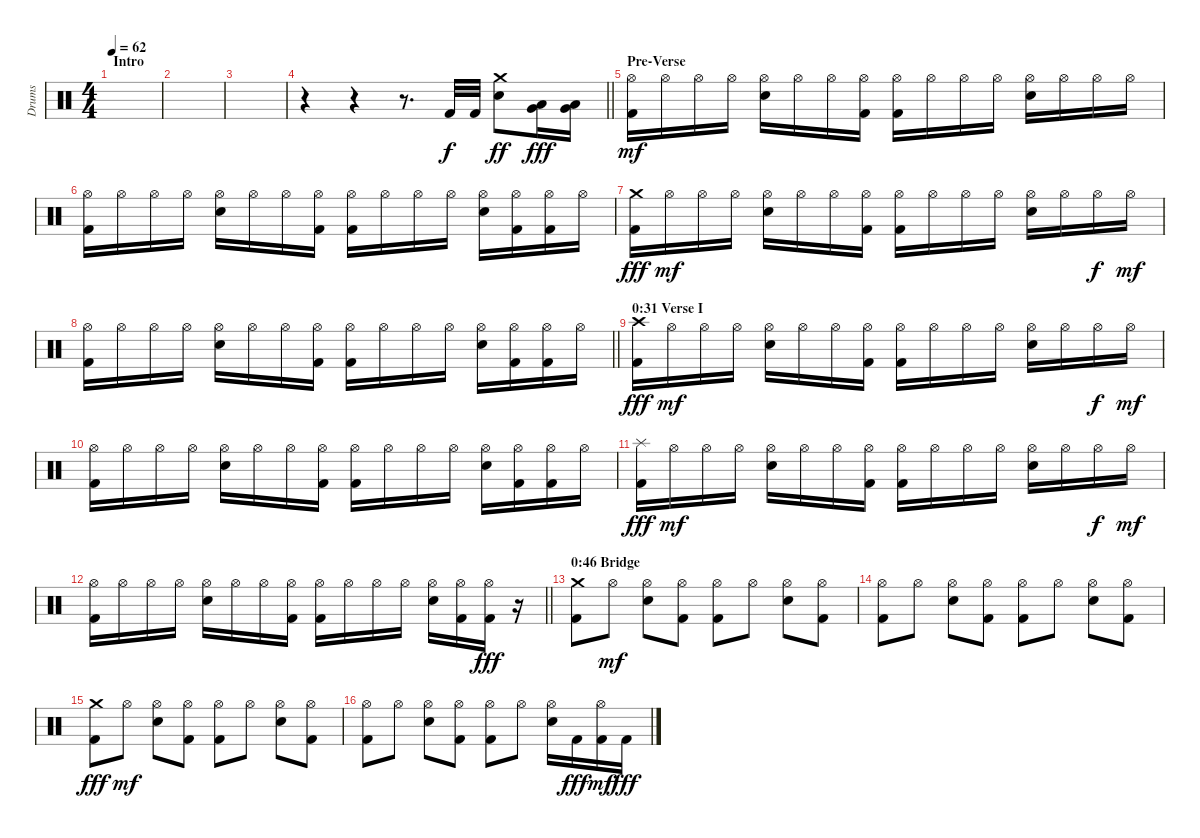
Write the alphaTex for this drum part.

\track ("Drums" "Drums") {instrument percussion}
\staff {score}
\articulation defaults
\ts (4 4)
\section ("" "Intro")
\tempo 62
\clef neutral
\ks c
|
|
|
\barLineRight lightlight
r.4 r.4 r.8{d} "Kick (hit) 2".32 "Kick (hit) 2".32 ("Electric Snare (hit)" "Crash medium (hit)").8{dy ff} ("Very Low Tom (hit)" "Low Tom (hit)").16{dy fff} ("Very Low Tom (hit)" "Low Tom (hit)").16 |
\section ("" "Pre-Verse")
("Kick (hit) 2" "Hi-Hat (open)").16{dy mf} "Hi-Hat (open)".16 "Hi-Hat (open)".16 "Hi-Hat (open)".16 ("Electric Snare (hit)" "Hi-Hat (open)").16 "Hi-Hat (open)".16 "Hi-Hat (open)".16 ("Kick (hit) 2" "Hi-Hat (open)").16 ("Kick (hit) 2" "Hi-Hat (open)").16 "Hi-Hat (open)".16 "Hi-Hat (open)".16 "Hi-Hat (open)".16 ("Electric Snare (hit)" "Hi-Hat (open)").16 "Hi-Hat (open)".16 "Hi-Hat (open)".16 "Hi-Hat (open)".16 |
("Kick (hit) 2" "Hi-Hat (open)").16 "Hi-Hat (open)".16 "Hi-Hat (open)".16 "Hi-Hat (open)".16 ("Electric Snare (hit)" "Hi-Hat (open)").16 "Hi-Hat (open)".16 "Hi-Hat (open)".16 ("Kick (hit) 2" "Hi-Hat (open)").16 ("Kick (hit) 2" "Hi-Hat (open)").16 "Hi-Hat (open)".16 "Hi-Hat (open)".16 "Hi-Hat (open)".16 ("Electric Snare (hit)" "Hi-Hat (open)").16 ("Kick (hit) 2" "Hi-Hat (open)").16 ("Kick (hit) 2" "Hi-Hat (open)").16 "Hi-Hat (open)".16 |
("Kick (hit) 2" "Crash medium (hit)").16{dy fff} "Hi-Hat (open)".16{dy mf} "Hi-Hat (open)".16 "Hi-Hat (open)".16 ("Electric Snare (hit)" "Hi-Hat (open)").16 "Hi-Hat (open)".16 "Hi-Hat (open)".16 ("Kick (hit) 2" "Hi-Hat (open)").16 ("Kick (hit) 2" "Hi-Hat (open)").16 "Hi-Hat (open)".16 "Hi-Hat (open)".16 "Hi-Hat (open)".16 ("Electric Snare (hit)" "Hi-Hat (open)").16 "Hi-Hat (open)".16 "Hi-Hat (open)".16{dy f} "Hi-Hat (open)".16{dy mf} |
\barLineRight lightlight
("Kick (hit) 2" "Hi-Hat (open)").16 "Hi-Hat (open)".16 "Hi-Hat (open)".16 "Hi-Hat (open)".16 ("Electric Snare (hit)" "Hi-Hat (open)").16 "Hi-Hat (open)".16 "Hi-Hat (open)".16 ("Kick (hit) 2" "Hi-Hat (open)").16 ("Kick (hit) 2" "Hi-Hat (open)").16 "Hi-Hat (open)".16 "Hi-Hat (open)".16 "Hi-Hat (open)".16 ("Electric Snare (hit)" "Hi-Hat (open)").16 ("Kick (hit) 2" "Hi-Hat (open)").16 ("Kick (hit) 2" "Hi-Hat (open)").16 "Hi-Hat (open)".16 |
\section ("" "0:31 Verse I ")
("Kick (hit) 2" "Crash high (hit)").16{dy fff} "Hi-Hat (open)".16{dy mf} "Hi-Hat (open)".16 "Hi-Hat (open)".16 ("Electric Snare (hit)" "Hi-Hat (open)").16 "Hi-Hat (open)".16 "Hi-Hat (open)".16 ("Kick (hit) 2" "Hi-Hat (open)").16 ("Kick (hit) 2" "Hi-Hat (open)").16 "Hi-Hat (open)".16 "Hi-Hat (open)".16 "Hi-Hat (open)".16 ("Electric Snare (hit)" "Hi-Hat (open)").16 "Hi-Hat (open)".16 "Hi-Hat (open)".16{dy f} "Hi-Hat (open)".16{dy mf} |
("Kick (hit) 2" "Hi-Hat (open)").16 "Hi-Hat (open)".16 "Hi-Hat (open)".16 "Hi-Hat (open)".16 ("Electric Snare (hit)" "Hi-Hat (open)").16 "Hi-Hat (open)".16 "Hi-Hat (open)".16 ("Kick (hit) 2" "Hi-Hat (open)").16 ("Kick (hit) 2" "Hi-Hat (open)").16 "Hi-Hat (open)".16 "Hi-Hat (open)".16 "Hi-Hat (open)".16 ("Electric Snare (hit)" "Hi-Hat (open)").16 ("Kick (hit) 2" "Hi-Hat (open)").16 ("Kick (hit) 2" "Hi-Hat (open)").16 "Hi-Hat (open)".16 |
("Kick (hit) 2" "Splash (hit)").16{dy fff} "Hi-Hat (open)".16{dy mf} "Hi-Hat (open)".16 "Hi-Hat (open)".16 ("Electric Snare (hit)" "Hi-Hat (open)").16 "Hi-Hat (open)".16 "Hi-Hat (open)".16 ("Kick (hit) 2" "Hi-Hat (open)").16 ("Kick (hit) 2" "Hi-Hat (open)").16 "Hi-Hat (open)".16 "Hi-Hat (open)".16 "Hi-Hat (open)".16 ("Electric Snare (hit)" "Hi-Hat (open)").16 "Hi-Hat (open)".16 "Hi-Hat (open)".16{dy f} "Hi-Hat (open)".16{dy mf} |
\barLineRight lightlight
("Kick (hit) 2" "Hi-Hat (open)").16 "Hi-Hat (open)".16 "Hi-Hat (open)".16 "Hi-Hat (open)".16 ("Electric Snare (hit)" "Hi-Hat (open)").16 "Hi-Hat (open)".16 "Hi-Hat (open)".16 ("Kick (hit) 2" "Hi-Hat (open)").16 ("Kick (hit) 2" "Hi-Hat (open)").16 "Hi-Hat (open)".16 "Hi-Hat (open)".16 "Hi-Hat (open)".16 ("Electric Snare (hit)" "Hi-Hat (open)").16 ("Kick (hit) 2" "Hi-Hat (open)").16 ("Kick (hit) 2" "Hi-Hat (open)").16{dy fff} r.16 |
\section ("" "0:46 Bridge")
("Kick (hit) 2" "Crash medium (hit)").8 "Hi-Hat (open)".8{dy mf} ("Electric Snare (hit)" "Hi-Hat (open)").8 ("Kick (hit) 2" "Hi-Hat (open)").8 ("Kick (hit) 2" "Hi-Hat (open)").8 "Hi-Hat (open)".8 ("Electric Snare (hit)" "Hi-Hat (open)").8 ("Kick (hit) 2" "Hi-Hat (open)").8 |
("Kick (hit) 2" "Hi-Hat (open)").8 "Hi-Hat (open)".8 ("Electric Snare (hit)" "Hi-Hat (open)").8 ("Kick (hit) 2" "Hi-Hat (open)").8 ("Kick (hit) 2" "Hi-Hat (open)").8 "Hi-Hat (open)".8 ("Electric Snare (hit)" "Hi-Hat (open)").8 ("Kick (hit) 2" "Hi-Hat (open)").8 |
("Kick (hit) 2" "Crash medium (hit)").8{dy fff} "Hi-Hat (open)".8{dy mf} ("Electric Snare (hit)" "Hi-Hat (open)").8 ("Kick (hit) 2" "Hi-Hat (open)").8 ("Kick (hit) 2" "Hi-Hat (open)").8 "Hi-Hat (open)".8 ("Electric Snare (hit)" "Hi-Hat (open)").8 ("Kick (hit) 2" "Hi-Hat (open)").8 |
("Kick (hit) 2" "Hi-Hat (open)").8 "Hi-Hat (open)".8 ("Electric Snare (hit)" "Hi-Hat (open)").8 ("Kick (hit) 2" "Hi-Hat (open)").8 ("Kick (hit) 2" "Hi-Hat (open)").8 "Hi-Hat (open)".8 ("Electric Snare (hit)" "Hi-Hat (open)").16 "Kick (hit) 2".16{dy fff} ("Kick (hit) 2" "Hi-Hat (open)").16{dy mf} "Kick (hit) 2".16{dy fff}
